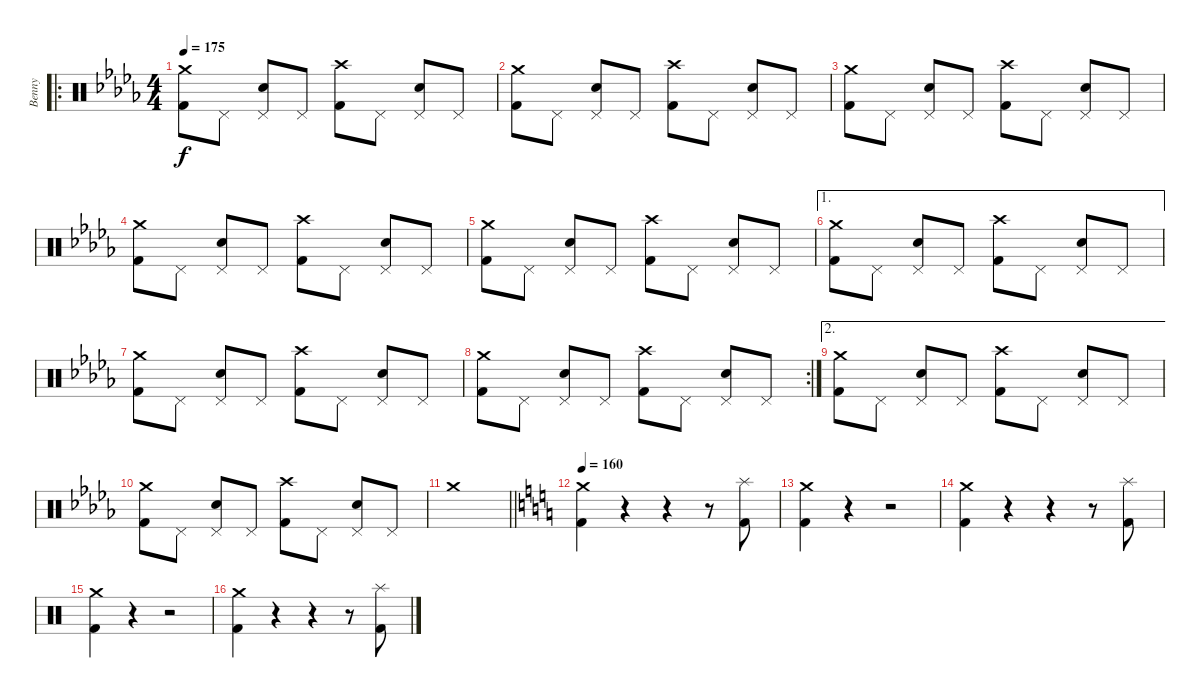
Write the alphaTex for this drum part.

\track ("Benny" "Benny") {instrument percussion}
\staff {score}
\articulation defaults
\ro
\ts (4 4)
\tempo 175
\clef neutral
\ks db
("Crash medium (hit)" "Kick (hit) 2").8{dy f} "Pedal Hi-Hat (hit)".8 ("Pedal Hi-Hat (hit)" "Snare (hit) 2").8 "Pedal Hi-Hat (hit)".8 ("Crash high (hit)" "Kick (hit) 2").8 "Pedal Hi-Hat (hit)".8 ("Pedal Hi-Hat (hit)" "Snare (hit) 2").8 "Pedal Hi-Hat (hit)".8 |
("Crash medium (hit)" "Kick (hit) 2").8 "Pedal Hi-Hat (hit)".8 ("Pedal Hi-Hat (hit)" "Snare (hit) 2").8 "Pedal Hi-Hat (hit)".8 ("Crash high (hit)" "Kick (hit) 2").8 "Pedal Hi-Hat (hit)".8 ("Pedal Hi-Hat (hit)" "Snare (hit) 2").8 "Pedal Hi-Hat (hit)".8 |
("Crash medium (hit)" "Kick (hit) 2").8 "Pedal Hi-Hat (hit)".8 ("Pedal Hi-Hat (hit)" "Snare (hit) 2").8 "Pedal Hi-Hat (hit)".8 ("Crash high (hit)" "Kick (hit) 2").8 "Pedal Hi-Hat (hit)".8 ("Pedal Hi-Hat (hit)" "Snare (hit) 2").8 "Pedal Hi-Hat (hit)".8 |
("Crash medium (hit)" "Kick (hit) 2").8 "Pedal Hi-Hat (hit)".8 ("Pedal Hi-Hat (hit)" "Snare (hit) 2").8 "Pedal Hi-Hat (hit)".8 ("Crash high (hit)" "Kick (hit) 2").8 "Pedal Hi-Hat (hit)".8 ("Pedal Hi-Hat (hit)" "Snare (hit) 2").8 "Pedal Hi-Hat (hit)".8 |
("Crash medium (hit)" "Kick (hit) 2").8 "Pedal Hi-Hat (hit)".8 ("Pedal Hi-Hat (hit)" "Snare (hit) 2").8 "Pedal Hi-Hat (hit)".8 ("Crash high (hit)" "Kick (hit) 2").8 "Pedal Hi-Hat (hit)".8 ("Pedal Hi-Hat (hit)" "Snare (hit) 2").8 "Pedal Hi-Hat (hit)".8 |
\ae 1
("Crash medium (hit)" "Kick (hit) 2").8 "Pedal Hi-Hat (hit)".8 ("Pedal Hi-Hat (hit)" "Snare (hit) 2").8 "Pedal Hi-Hat (hit)".8 ("Crash high (hit)" "Kick (hit) 2").8 "Pedal Hi-Hat (hit)".8 ("Pedal Hi-Hat (hit)" "Snare (hit) 2").8 "Pedal Hi-Hat (hit)".8 |
("Crash medium (hit)" "Kick (hit) 2").8 "Pedal Hi-Hat (hit)".8 ("Pedal Hi-Hat (hit)" "Snare (hit) 2").8 "Pedal Hi-Hat (hit)".8 ("Crash high (hit)" "Kick (hit) 2").8 "Pedal Hi-Hat (hit)".8 ("Pedal Hi-Hat (hit)" "Snare (hit) 2").8 "Pedal Hi-Hat (hit)".8 |
\rc 2
("Crash medium (hit)" "Kick (hit) 2").8 "Pedal Hi-Hat (hit)".8 ("Pedal Hi-Hat (hit)" "Snare (hit) 2").8 "Pedal Hi-Hat (hit)".8 ("Crash high (hit)" "Kick (hit) 2").8 "Pedal Hi-Hat (hit)".8 ("Pedal Hi-Hat (hit)" "Snare (hit) 2").8 "Pedal Hi-Hat (hit)".8 |
\ae 2
("Crash medium (hit)" "Kick (hit) 2").8 "Pedal Hi-Hat (hit)".8 ("Pedal Hi-Hat (hit)" "Snare (hit) 2").8 "Pedal Hi-Hat (hit)".8 ("Crash high (hit)" "Kick (hit) 2").8 "Pedal Hi-Hat (hit)".8 ("Pedal Hi-Hat (hit)" "Snare (hit) 2").8 "Pedal Hi-Hat (hit)".8 |
("Crash medium (hit)" "Kick (hit) 2").8 "Pedal Hi-Hat (hit)".8 ("Pedal Hi-Hat (hit)" "Snare (hit) 2").8 "Pedal Hi-Hat (hit)".8 ("Crash high (hit)" "Kick (hit) 2").8 "Pedal Hi-Hat (hit)".8 ("Pedal Hi-Hat (hit)" "Snare (hit) 2").8 "Pedal Hi-Hat (hit)".8 |
\barLineRight lightlight "Crash medium (hit)".1
|
\tempo 160
\ks c
("Crash medium (hit)" "Kick (hit) 2").4 r.4 r.4 r.8 ("Splash (hit)" "Kick (hit) 2").8 |
("Crash medium (hit)" "Kick (hit) 2").4 r.4 r.2 |
("Crash medium (hit)" "Kick (hit) 2").4 r.4 r.4 r.8 ("Splash (hit)" "Kick (hit) 2").8 |
("Crash medium (hit)" "Kick (hit) 2").4 r.4 r.2 |
("Crash medium (hit)" "Kick (hit) 2").4 r.4 r.4 r.8 ("Splash (hit)" "Kick (hit) 2").8
